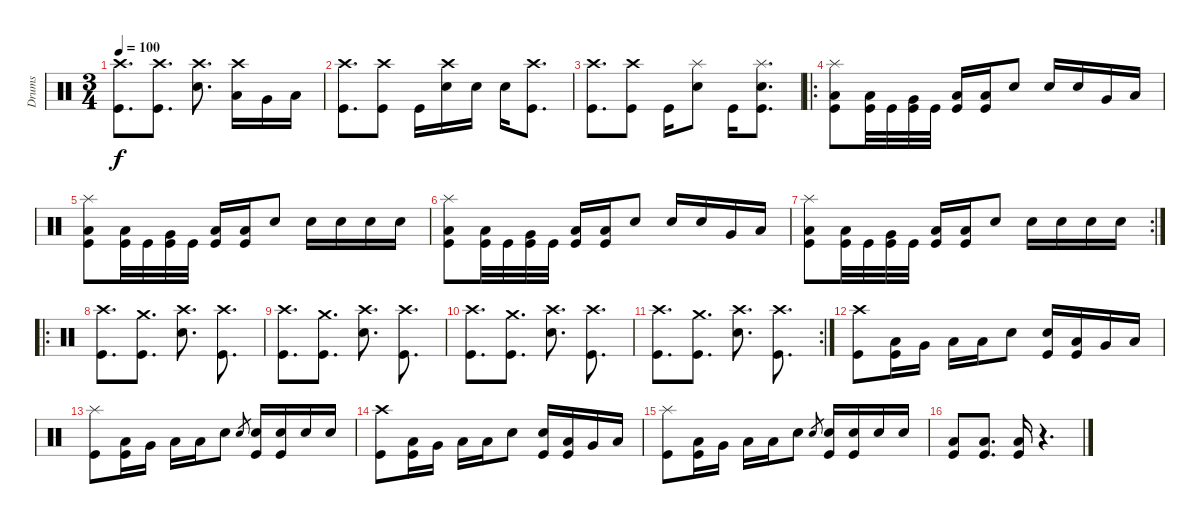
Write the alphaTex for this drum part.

\track ("Drums" "Drums") {instrument percussion}
\staff {score}
\articulation defaults
\ts (3 4)
\tempo 100
\clef neutral
\ks c
("Crash high (hit)" "Kick (hit)").8{d dy f} ("Crash high (hit)" "Kick (hit)").8{d} ("Crash high (hit)" "Snare (hit) 2").8{d} ("Crash high (hit)" "Low Floor Tom (hit)").16 "Very Low Tom (hit)".16 "Low Tom (hit)".16 |
("Crash high (hit)" "Kick (hit)").8{d} ("Crash high (hit)" "Kick (hit)").8 "Kick (hit)".16 ("Crash high (hit)" "Snare (hit) 2").16 "Snare (hit) 2".16 "Snare (hit) 2".16 ("Crash high (hit)" "Kick (hit)").8{d} |
("Crash high (hit)" "Kick (hit)").8{d} ("Crash high (hit)" "Kick (hit)").8 "Kick (hit)".16 ("Splash (hit)" "Snare (hit) 2").8 "Kick (hit)".16 ("Splash (hit)" "Snare (hit) 2" "Kick (hit)").8{d} |
\ro
("Splash (hit)" "Low Floor Tom (hit)" "Kick (hit)").8 ("Low Tom (hit)" "Kick (hit)").32 "Kick (hit)".32 ("Very Low Tom (hit)" "Kick (hit)").32 "Kick (hit)".32 ("Low Floor Tom (hit)" "Kick (hit)").16 ("Low Floor Tom (hit)" "Kick (hit)").16 "Snare (hit) 2".8 "Snare (hit) 2".16 "Snare (hit) 2".16 "Very Low Tom (hit)".16 "Low Floor Tom (hit)".16 |
("Splash (hit)" "Low Floor Tom (hit)" "Kick (hit)").8 ("Low Tom (hit)" "Kick (hit)").32 "Kick (hit)".32 ("Very Low Tom (hit)" "Kick (hit)").32 "Kick (hit)".32 ("Low Floor Tom (hit)" "Kick (hit)").16 ("Low Floor Tom (hit)" "Kick (hit)").16 "Snare (hit) 2".8 "Snare (hit) 2".16 "Snare (hit) 2".16 "Snare (hit) 2".16 "Snare (hit) 2".16 |
("Splash (hit)" "Low Floor Tom (hit)" "Kick (hit)").8 ("Low Tom (hit)" "Kick (hit)").32 "Kick (hit)".32 ("Very Low Tom (hit)" "Kick (hit)").32 "Kick (hit)".32 ("Low Floor Tom (hit)" "Kick (hit)").16 ("Low Floor Tom (hit)" "Kick (hit)").16 "Snare (hit) 2".8 "Snare (hit) 2".16 "Snare (hit) 2".16 "Very Low Tom (hit)".16 "Low Floor Tom (hit)".16 |
\rc 2
("Splash (hit)" "Low Floor Tom (hit)" "Kick (hit)").8 ("Low Tom (hit)" "Kick (hit)").32 "Kick (hit)".32 ("Very Low Tom (hit)" "Kick (hit)").32 "Kick (hit)".32 ("Low Floor Tom (hit)" "Kick (hit)").16 ("Low Floor Tom (hit)" "Kick (hit)").16 "Snare (hit) 2".8 "Snare (hit) 2".16 "Snare (hit) 2".16 "Snare (hit) 2".16 "Snare (hit) 2".16 |
\ro
("Crash high (hit)" "Kick (hit)").8{d} ("Crash medium (hit)" "Kick (hit)").8{d} ("Crash high (hit)" "Snare (hit) 2").8{d} ("Crash high (hit)" "Kick (hit)").8{d} |
("Crash high (hit)" "Kick (hit)").8{d} ("Crash medium (hit)" "Kick (hit)").8{d} ("Crash high (hit)" "Snare (hit) 2").8{d} ("Crash high (hit)" "Kick (hit)").8{d} |
("Crash high (hit)" "Kick (hit)").8{d} ("Crash medium (hit)" "Kick (hit)").8{d} ("Crash high (hit)" "Snare (hit) 2").8{d} ("Crash high (hit)" "Kick (hit)").8{d} |
\rc 2
("Crash high (hit)" "Kick (hit)").8{d} ("Crash medium (hit)" "Kick (hit)").8{d} ("Crash high (hit)" "Snare (hit) 2").8{d} ("Crash high (hit)" "Kick (hit)").8{d} |
("Crash high (hit)" "Kick (hit)").8 ("Low Tom (hit)" "Kick (hit)").16 "Very Low Tom (hit)".16 "Low Floor Tom (hit)".16 "Low Floor Tom (hit)".16 "Snare (hit) 2".8 ("Snare (hit) 2" "Kick (hit)").16 ("Low Tom (hit)" "Kick (hit)").16 "Very Low Tom (hit)".16 "Low Floor Tom (hit)".16 |
("Splash (hit)" "Kick (hit)").8 ("Low Tom (hit)" "Kick (hit)").16 "Very Low Tom (hit)".16 "Low Floor Tom (hit)".16 "Low Floor Tom (hit)".16 "Snare (hit) 2".8 "Snare (hit) 2".8{gr} ("Snare (hit) 2" "Kick (hit)").16 ("Snare (hit) 2" "Kick (hit)").16 "Snare (hit) 2".16 "Snare (hit) 2".16 |
("Crash high (hit)" "Kick (hit)").8 ("Low Tom (hit)" "Kick (hit)").16 "Very Low Tom (hit)".16 "Low Floor Tom (hit)".16 "Low Floor Tom (hit)".16 "Snare (hit) 2".8 ("Snare (hit) 2" "Kick (hit)").16 ("Low Tom (hit)" "Kick (hit)").16 "Very Low Tom (hit)".16 "Low Floor Tom (hit)".16 |
("Splash (hit)" "Kick (hit)").8 ("Low Tom (hit)" "Kick (hit)").16 "Very Low Tom (hit)".16 "Low Floor Tom (hit)".16 "Low Floor Tom (hit)".16 "Snare (hit) 2".8 "Snare (hit) 2".8{gr} ("Snare (hit) 2" "Kick (hit)").16 ("Snare (hit) 2" "Kick (hit)").16 "Snare (hit) 2".16 "Snare (hit) 2".16 |
("Low Floor Tom (hit)" "Kick (hit)").8 ("Low Floor Tom (hit)" "Kick (hit)").8{d} ("Low Floor Tom (hit)" "Kick (hit)").16 r.4{d}
